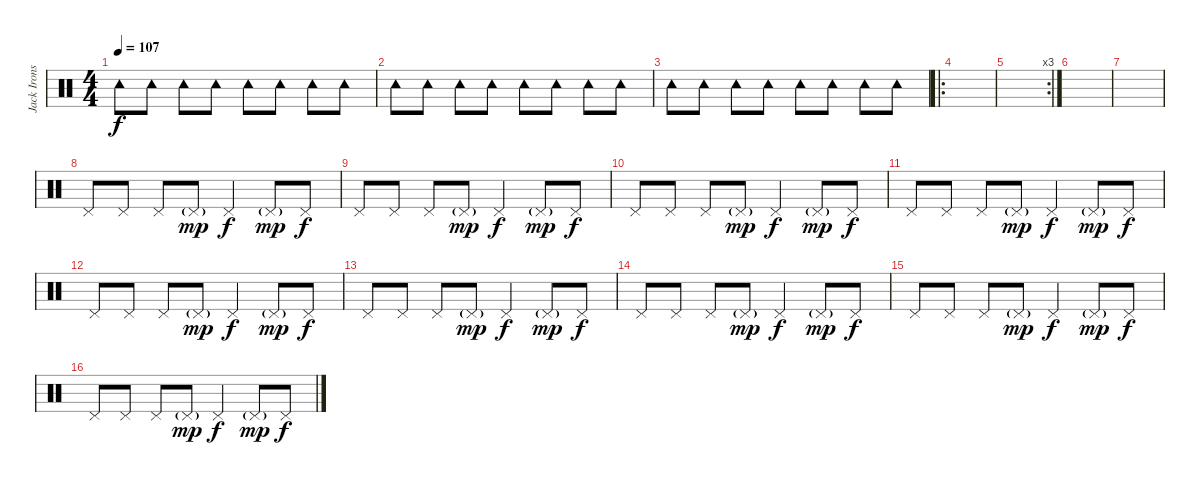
\track ("Jack Irons" "Jack Irons") {instrument percussion}
\staff {score}
\articulation defaults
\ts (4 4)
\tempo 107
\clef neutral
\ks c "Tambourine (hit)".8{dy f} "Tambourine (hit)".8 "Tambourine (hit)".8 "Tambourine (hit)".8 "Tambourine (hit)".8 "Tambourine (hit)".8 "Tambourine (hit)".8 "Tambourine (hit)".8
|
"Tambourine (hit)".8 "Tambourine (hit)".8 "Tambourine (hit)".8 "Tambourine (hit)".8 "Tambourine (hit)".8 "Tambourine (hit)".8 "Tambourine (hit)".8 "Tambourine (hit)".8 |
"Tambourine (hit)".8 "Tambourine (hit)".8 "Tambourine (hit)".8 "Tambourine (hit)".8 "Tambourine (hit)".8 "Tambourine (hit)".8 "Tambourine (hit)".8 "Tambourine (hit)".8 |
\ro
|
\rc 3
|
|
|
"Pedal Hi-Hat (hit)".8 "Pedal Hi-Hat (hit)".8 "Pedal Hi-Hat (hit)".8 "Pedal Hi-Hat (hit)"{g}.8{dy mp} "Pedal Hi-Hat (hit)".4{dy f} "Pedal Hi-Hat (hit)"{g}.8{dy mp} "Pedal Hi-Hat (hit)".8{dy f} |
"Pedal Hi-Hat (hit)".8 "Pedal Hi-Hat (hit)".8 "Pedal Hi-Hat (hit)".8 "Pedal Hi-Hat (hit)"{g}.8{dy mp} "Pedal Hi-Hat (hit)".4{dy f} "Pedal Hi-Hat (hit)"{g}.8{dy mp} "Pedal Hi-Hat (hit)".8{dy f} |
"Pedal Hi-Hat (hit)".8 "Pedal Hi-Hat (hit)".8 "Pedal Hi-Hat (hit)".8 "Pedal Hi-Hat (hit)"{g}.8{dy mp} "Pedal Hi-Hat (hit)".4{dy f} "Pedal Hi-Hat (hit)"{g}.8{dy mp} "Pedal Hi-Hat (hit)".8{dy f} |
"Pedal Hi-Hat (hit)".8 "Pedal Hi-Hat (hit)".8 "Pedal Hi-Hat (hit)".8 "Pedal Hi-Hat (hit)"{g}.8{dy mp} "Pedal Hi-Hat (hit)".4{dy f} "Pedal Hi-Hat (hit)"{g}.8{dy mp} "Pedal Hi-Hat (hit)".8{dy f} |
"Pedal Hi-Hat (hit)".8 "Pedal Hi-Hat (hit)".8 "Pedal Hi-Hat (hit)".8 "Pedal Hi-Hat (hit)"{g}.8{dy mp} "Pedal Hi-Hat (hit)".4{dy f} "Pedal Hi-Hat (hit)"{g}.8{dy mp} "Pedal Hi-Hat (hit)".8{dy f} |
"Pedal Hi-Hat (hit)".8 "Pedal Hi-Hat (hit)".8 "Pedal Hi-Hat (hit)".8 "Pedal Hi-Hat (hit)"{g}.8{dy mp} "Pedal Hi-Hat (hit)".4{dy f} "Pedal Hi-Hat (hit)"{g}.8{dy mp} "Pedal Hi-Hat (hit)".8{dy f} |
"Pedal Hi-Hat (hit)".8 "Pedal Hi-Hat (hit)".8 "Pedal Hi-Hat (hit)".8 "Pedal Hi-Hat (hit)"{g}.8{dy mp} "Pedal Hi-Hat (hit)".4{dy f} "Pedal Hi-Hat (hit)"{g}.8{dy mp} "Pedal Hi-Hat (hit)".8{dy f} |
"Pedal Hi-Hat (hit)".8 "Pedal Hi-Hat (hit)".8 "Pedal Hi-Hat (hit)".8 "Pedal Hi-Hat (hit)"{g}.8{dy mp} "Pedal Hi-Hat (hit)".4{dy f} "Pedal Hi-Hat (hit)"{g}.8{dy mp} "Pedal Hi-Hat (hit)".8{dy f} |
"Pedal Hi-Hat (hit)".8 "Pedal Hi-Hat (hit)".8 "Pedal Hi-Hat (hit)".8 "Pedal Hi-Hat (hit)"{g}.8{dy mp} "Pedal Hi-Hat (hit)".4{dy f} "Pedal Hi-Hat (hit)"{g}.8{dy mp} "Pedal Hi-Hat (hit)".8{dy f}
